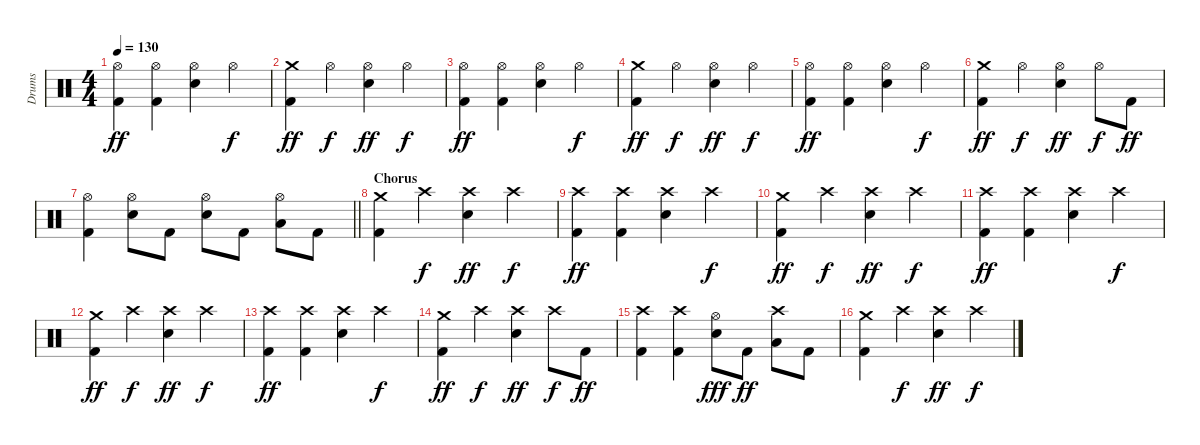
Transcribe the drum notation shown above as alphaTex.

\track ("Drums" "Drums") {instrument percussion}
\staff {score}
\articulation defaults
\ts (4 4)
\tempo 130
\clef neutral
\ks c
("Hi-Hat (open)" "Kick (hit) 2").4{dy ff} ("Hi-Hat (open)" "Kick (hit) 2").4 ("Hi-Hat (open)" "Snare (hit) 2").4 "Hi-Hat (open)".4{dy f} |
("Crash medium (hit)" "Kick (hit) 2").4{dy ff} "Hi-Hat (open)".4{dy f} ("Hi-Hat (open)" "Snare (hit) 2").4{dy ff} "Hi-Hat (open)".4{dy f} |
("Hi-Hat (open)" "Kick (hit) 2").4{dy ff} ("Hi-Hat (open)" "Kick (hit) 2").4 ("Hi-Hat (open)" "Snare (hit) 2").4 "Hi-Hat (open)".4{dy f} |
("Crash medium (hit)" "Kick (hit) 2").4{dy ff} "Hi-Hat (open)".4{dy f} ("Hi-Hat (open)" "Snare (hit) 2").4{dy ff} "Hi-Hat (open)".4{dy f} |
("Hi-Hat (open)" "Kick (hit) 2").4{dy ff} ("Hi-Hat (open)" "Kick (hit) 2").4 ("Hi-Hat (open)" "Snare (hit) 2").4 "Hi-Hat (open)".4{dy f} |
("Crash medium (hit)" "Kick (hit) 2").4{dy ff} "Hi-Hat (open)".4{dy f} ("Hi-Hat (open)" "Snare (hit) 2").4{dy ff} "Hi-Hat (open)".8{dy f} "Kick (hit) 2".8{dy ff} |
\barLineRight lightlight
("Hi-Hat (open)" "Kick (hit) 2").4 ("Hi-Hat (open)" "Snare (hit) 2").8 "Kick (hit) 2".8 ("Hi-Hat (open)" "Snare (hit) 2").8 "Kick (hit) 2".8 ("Hi-Hat (open)" "Low Tom (hit)").8 "Kick (hit) 2".8 |
\section ("" "Chorus")
("Crash medium (hit)" "Kick (hit) 2").4 "Crash high (hit)".4{dy f} ("Crash high (hit)" "Snare (hit) 2").4{dy ff} "Crash high (hit)".4{dy f} |
("Crash high (hit)" "Kick (hit) 2").4{dy ff} ("Crash high (hit)" "Kick (hit) 2").4 ("Crash high (hit)" "Snare (hit) 2").4 "Crash high (hit)".4{dy f} |
("Crash medium (hit)" "Kick (hit) 2").4{dy ff} "Crash high (hit)".4{dy f} ("Crash high (hit)" "Snare (hit) 2").4{dy ff} "Crash high (hit)".4{dy f} |
("Crash high (hit)" "Kick (hit) 2").4{dy ff} ("Crash high (hit)" "Kick (hit) 2").4 ("Crash high (hit)" "Snare (hit) 2").4 "Crash high (hit)".4{dy f} |
("Crash medium (hit)" "Kick (hit) 2").4{dy ff} "Crash high (hit)".4{dy f} ("Crash high (hit)" "Snare (hit) 2").4{dy ff} "Crash high (hit)".4{dy f} |
("Crash high (hit)" "Kick (hit) 2").4{dy ff} ("Crash high (hit)" "Kick (hit) 2").4 ("Crash high (hit)" "Snare (hit) 2").4 "Crash high (hit)".4{dy f} |
("Crash medium (hit)" "Kick (hit) 2").4{dy ff} "Crash high (hit)".4{dy f} ("Crash high (hit)" "Snare (hit) 2").4{dy ff} "Crash high (hit)".8{dy f} "Kick (hit) 2".8{dy ff} |
("Crash high (hit)" "Kick (hit) 2").4 ("Crash high (hit)" "Kick (hit) 2").4 ("Hi-Hat (open)" "Snare (hit) 2").8{dy fff} "Kick (hit) 2".8{dy ff} ("Crash high (hit)" "Low Tom (hit)").8 "Kick (hit) 2".8 |
("Crash medium (hit)" "Kick (hit) 2").4 "Crash high (hit)".4{dy f} ("Crash high (hit)" "Snare (hit) 2").4{dy ff} "Crash high (hit)".4{dy f}
